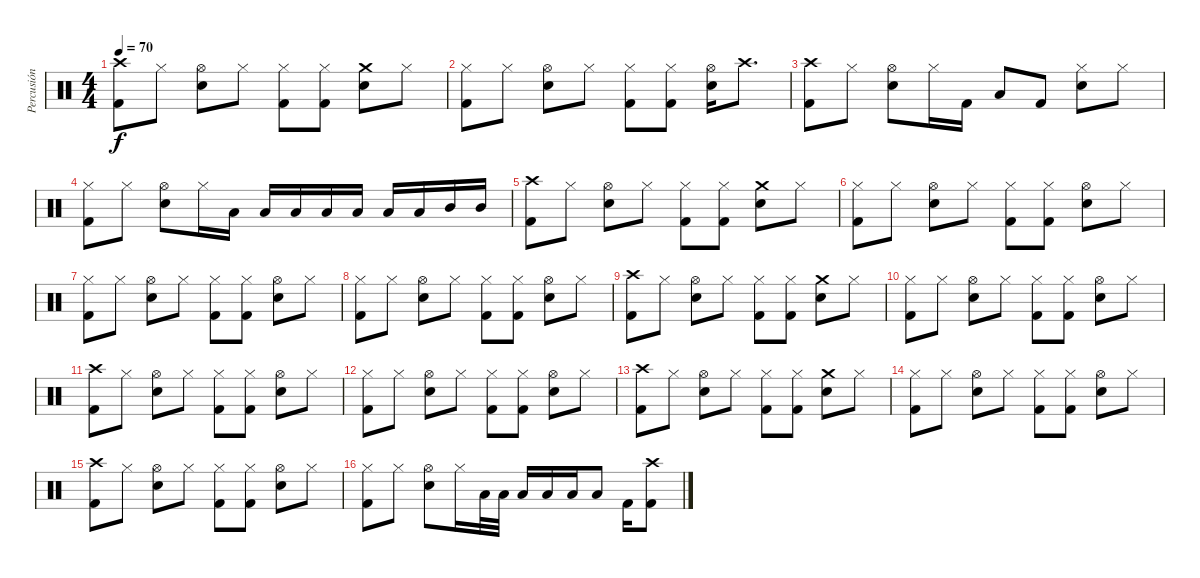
\track ("Percusión" "Percusión") {instrument percussion}
\staff {score}
\articulation defaults
\ts (4 4)
\tempo 70
\clef neutral
\ks c
("Crash high (hit)" "Kick (hit) 2").8{dy f} "Hi-Hat (closed)".8 ("Hi-Hat (open)" "Snare (hit) 2").8 "Hi-Hat (closed)".8 ("Hi-Hat (closed)" "Kick (hit) 2").8 ("Hi-Hat (closed)" "Kick (hit) 2").8 ("Crash medium (hit)" "Snare (hit) 2").8 "Hi-Hat (closed)".8 |
("Hi-Hat (closed)" "Kick (hit) 2").8 "Hi-Hat (closed)".8 ("Hi-Hat (open)" "Snare (hit) 2").8 "Hi-Hat (closed)".8 ("Hi-Hat (closed)" "Kick (hit) 2").8 ("Hi-Hat (closed)" "Kick (hit) 2").8 ("Hi-Hat (open)" "Snare (hit) 2").16 "Crash high (hit)".8{d} |
("Crash high (hit)" "Kick (hit) 2").8 "Hi-Hat (closed)".8 ("Hi-Hat (open)" "Snare (hit) 2").8 "Hi-Hat (closed)".16 "Kick (hit) 2".16 "Low Tom (hit)".8 "Kick (hit) 2".8 ("Hi-Hat (closed)" "Snare (hit) 2").8 "Hi-Hat (closed)".8 |
("Hi-Hat (closed)" "Kick (hit) 2").8 "Hi-Hat (closed)".8 ("Hi-Hat (open)" "Snare (hit) 2").8 "Hi-Hat (closed)".16 "Low Tom (hit)".16 "Low Tom (hit)".16 "Low Tom (hit)".16 "Low Floor Tom (hit)".16 "Low Tom (hit)".16 "Low Tom (hit)".16 "Low Tom (hit)".16 "Mid Tom (hit)".16 "Mid Tom (hit)".16 |
("Crash high (hit)" "Kick (hit) 2").8 "Hi-Hat (closed)".8 ("Hi-Hat (open)" "Snare (hit) 2").8 "Hi-Hat (closed)".8 ("Hi-Hat (closed)" "Kick (hit) 2").8 ("Hi-Hat (closed)" "Kick (hit) 2").8 ("Crash medium (hit)" "Snare (hit) 2").8 "Hi-Hat (closed)".8 |
("Hi-Hat (closed)" "Kick (hit) 2").8 "Hi-Hat (closed)".8 ("Hi-Hat (open)" "Snare (hit) 2").8 "Hi-Hat (closed)".8 ("Hi-Hat (closed)" "Kick (hit) 2").8 ("Hi-Hat (closed)" "Kick (hit) 2").8 ("Hi-Hat (open)" "Snare (hit) 2").8 "Hi-Hat (closed)".8 |
("Hi-Hat (closed)" "Kick (hit) 2").8 "Hi-Hat (closed)".8 ("Hi-Hat (open)" "Snare (hit) 2").8 "Hi-Hat (closed)".8 ("Hi-Hat (closed)" "Kick (hit) 2").8 ("Hi-Hat (closed)" "Kick (hit) 2").8 ("Hi-Hat (open)" "Snare (hit) 2").8 "Hi-Hat (closed)".8 |
("Hi-Hat (closed)" "Kick (hit) 2").8 "Hi-Hat (closed)".8 ("Hi-Hat (open)" "Snare (hit) 2").8 "Hi-Hat (closed)".8 ("Hi-Hat (closed)" "Kick (hit) 2").8 ("Hi-Hat (closed)" "Kick (hit) 2").8 ("Hi-Hat (open)" "Snare (hit) 2").8 "Hi-Hat (closed)".8 |
("Crash high (hit)" "Kick (hit) 2").8 "Hi-Hat (closed)".8 ("Hi-Hat (open)" "Snare (hit) 2").8 "Hi-Hat (closed)".8 ("Hi-Hat (closed)" "Kick (hit) 2").8 ("Hi-Hat (closed)" "Kick (hit) 2").8 ("Crash medium (hit)" "Snare (hit) 2").8 "Hi-Hat (closed)".8 |
("Hi-Hat (closed)" "Kick (hit) 2").8 "Hi-Hat (closed)".8 ("Hi-Hat (open)" "Snare (hit) 2").8 "Hi-Hat (closed)".8 ("Hi-Hat (closed)" "Kick (hit) 2").8 ("Hi-Hat (closed)" "Kick (hit) 2").8 ("Hi-Hat (open)" "Snare (hit) 2").8 "Hi-Hat (closed)".8 |
("Crash high (hit)" "Kick (hit) 2").8 "Hi-Hat (closed)".8 ("Hi-Hat (open)" "Snare (hit) 2").8 "Hi-Hat (closed)".8 ("Hi-Hat (closed)" "Kick (hit) 2").8 ("Hi-Hat (closed)" "Kick (hit) 2").8 ("Hi-Hat (open)" "Snare (hit) 2").8 "Hi-Hat (closed)".8 |
("Hi-Hat (closed)" "Kick (hit) 2").8 "Hi-Hat (closed)".8 ("Hi-Hat (open)" "Snare (hit) 2").8 "Hi-Hat (closed)".8 ("Hi-Hat (closed)" "Kick (hit) 2").8 ("Hi-Hat (closed)" "Kick (hit) 2").8 ("Hi-Hat (open)" "Snare (hit) 2").8 "Hi-Hat (closed)".8 |
("Crash high (hit)" "Kick (hit) 2").8 "Hi-Hat (closed)".8 ("Hi-Hat (open)" "Snare (hit) 2").8 "Hi-Hat (closed)".8 ("Hi-Hat (closed)" "Kick (hit) 2").8 ("Hi-Hat (closed)" "Kick (hit) 2").8 ("Crash medium (hit)" "Snare (hit) 2").8 "Hi-Hat (closed)".8 |
("Hi-Hat (closed)" "Kick (hit) 2").8 "Hi-Hat (closed)".8 ("Hi-Hat (open)" "Snare (hit) 2").8 "Hi-Hat (closed)".8 ("Hi-Hat (closed)" "Kick (hit) 2").8 ("Hi-Hat (closed)" "Kick (hit) 2").8 ("Hi-Hat (open)" "Snare (hit) 2").8 "Hi-Hat (closed)".8 |
("Crash high (hit)" "Kick (hit) 2").8 "Hi-Hat (closed)".8 ("Hi-Hat (open)" "Snare (hit) 2").8 "Hi-Hat (closed)".8 ("Hi-Hat (closed)" "Kick (hit) 2").8 ("Hi-Hat (closed)" "Kick (hit) 2").8 ("Hi-Hat (open)" "Snare (hit) 2").8 "Hi-Hat (closed)".8 |
("Hi-Hat (closed)" "Kick (hit) 2").8 "Hi-Hat (closed)".8 ("Hi-Hat (open)" "Snare (hit) 2").8 "Hi-Hat (closed)".16 "Low Tom (hit)".32 "Low Tom (hit)".32 "Low Tom (hit)".16 "Low Floor Tom (hit)".16 "Low Tom (hit)".16 "Low Tom (hit)".8 "Kick (hit) 2".16 ("Crash high (hit)" "Kick (hit) 2").8
